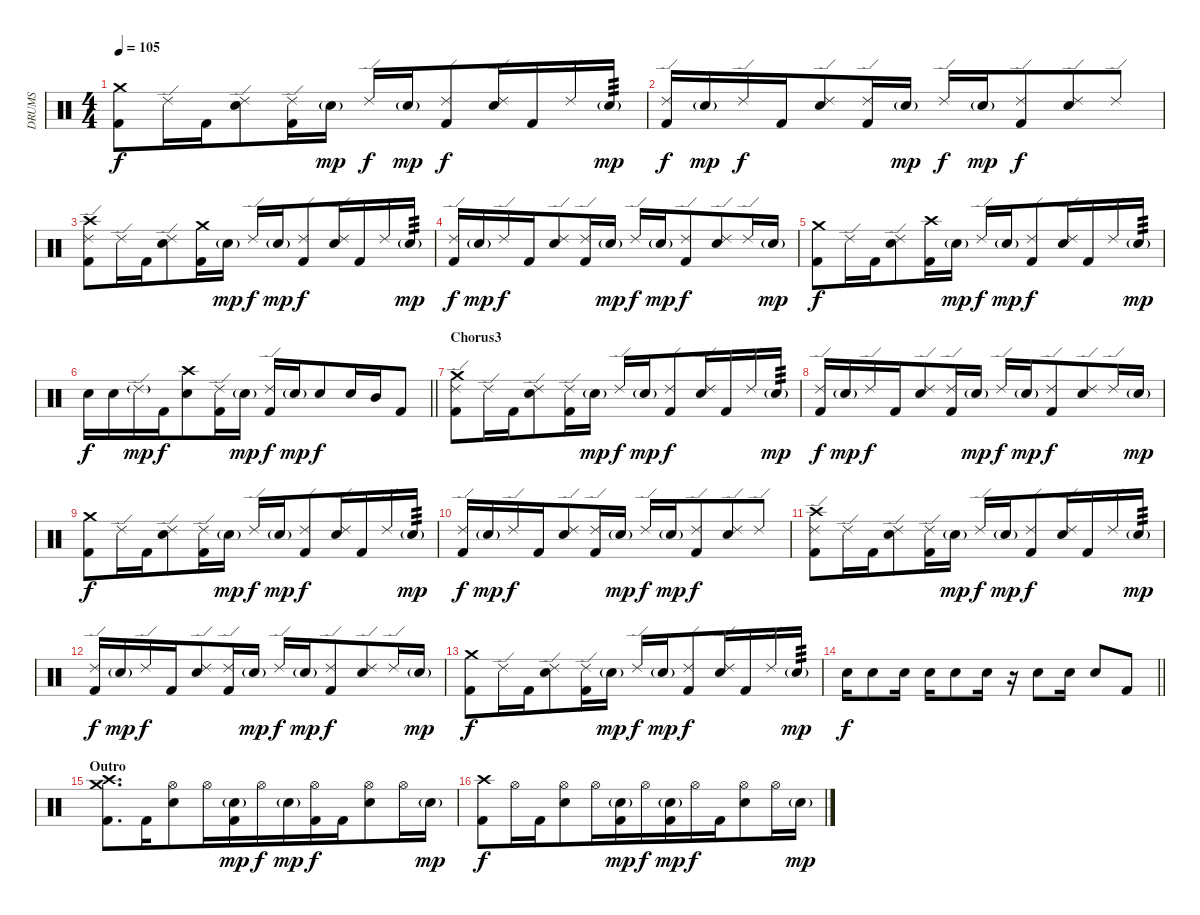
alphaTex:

\track ("DRUMS" "DRUMS") {instrument percussion bank 148}
\staff {score}
\articulation defaults
\ts (4 4)
\tempo 105
\clef neutral
\ks c
("Crash medium (hit)" "Kick (hit) 2").8{dy f beam merge} "Ride (edge) 2".16 "Kick (hit) 2".16{beam merge} ("Ride (edge) 2" "Electric Snare (hit)").8 ("Ride (edge) 2" "Kick (hit) 2").16{beam merge} "Electric Snare (hit)"{g}.16{dy mp} "Ride (edge) 2".16{dy f} "Electric Snare (hit)"{g}.16{dy mp beam merge} ("Ride (edge) 2" "Kick (hit) 2").8{dy f beam merge} ("Ride (edge) 2" "Electric Snare (hit)").16 "Kick (hit) 2".16 "Ride (edge) 2".16 "Electric Snare (hit)"{g}.16{tp 3 dy mp} |
("Ride (edge) 2" "Kick (hit) 2").16{dy f} "Electric Snare (hit)"{g}.16{dy mp} "Ride (edge) 2".16{dy f} "Kick (hit) 2".16{beam merge} ("Ride (edge) 2" "Electric Snare (hit)").8 ("Ride (edge) 2" "Kick (hit) 2").16 "Electric Snare (hit)"{g}.16{dy mp} "Ride (edge) 2".16{dy f beam merge} "Electric Snare (hit)"{g}.16{dy mp beam merge} ("Ride (edge) 2" "Kick (hit) 2").8{dy f beam merge} ("Ride (edge) 2" "Electric Snare (hit)").8 "Ride (edge) 2".8 |
("Ride (edge) 2" "Crash high (hit)" "Kick (hit) 2").8{beam merge} "Ride (edge) 2".16 "Kick (hit) 2".16{beam merge} ("Ride (edge) 2" "Electric Snare (hit)").8 ("Crash medium (hit)" "Kick (hit) 2").16{beam merge} "Electric Snare (hit)"{g}.16{dy mp} "Ride (edge) 2".16{dy f} "Electric Snare (hit)"{g}.16{dy mp beam merge} ("Ride (edge) 2" "Kick (hit) 2").8{dy f beam merge} ("Ride (edge) 2" "Electric Snare (hit)").16 "Kick (hit) 2".16 "Ride (edge) 2".16 "Electric Snare (hit)"{g}.16{tp 3 dy mp} |
("Ride (edge) 2" "Kick (hit) 2").16{dy f} "Electric Snare (hit)"{g}.16{dy mp} "Ride (edge) 2".16{dy f} "Kick (hit) 2".16{beam merge} ("Ride (edge) 2" "Electric Snare (hit)").8 ("Ride (edge) 2" "Kick (hit) 2").16 "Electric Snare (hit)"{g}.16{dy mp} "Ride (edge) 2".16{dy f beam merge} "Electric Snare (hit)"{g}.16{dy mp beam merge} ("Ride (edge) 2" "Kick (hit) 2").8{dy f beam merge} ("Ride (edge) 2" "Electric Snare (hit)").8 "Ride (edge) 2".16 "Electric Snare (hit)"{g}.16{dy mp} |
("Crash medium (hit)" "Kick (hit) 2").8{dy f beam merge} "Ride (edge) 2".16 "Kick (hit) 2".16{beam merge} ("Ride (edge) 2" "Electric Snare (hit)").8 ("Crash high (hit)" "Kick (hit) 2").16{beam merge} "Electric Snare (hit)"{g}.16{dy mp} "Ride (edge) 2".16{dy f} "Electric Snare (hit)"{g}.16{dy mp beam merge} ("Ride (edge) 2" "Kick (hit) 2").8{dy f beam merge} ("Ride (edge) 2" "Electric Snare (hit)").16 "Kick (hit) 2".16 "Ride (edge) 2".16 "Electric Snare (hit)"{g}.16{tp 3 dy mp} |
\barLineRight lightlight "Electric Snare (hit)".16{dy f} "Electric Snare (hit)".16 "Ride (edge) 2"{g}.16{dy mp} "Kick (hit) 2".16{dy f beam merge}
("Crash high (hit)" "Electric Snare (hit)").8 ("Ride (edge) 2" "Kick (hit) 2").16 "Electric Snare (hit)"{g}.16{dy mp} ("Ride (edge) 2" "Kick (hit) 2").16{dy f beam merge} "Electric Snare (hit)"{g}.16{dy mp beam merge} "Electric Snare (hit)".8{dy f beam merge} "Electric Snare (hit)".16 "Mid Tom (hit)".16 "Kick (hit) 2".8 |
\section ("" "Chorus3")
("Ride (edge) 2" "Crash medium (hit)" "Kick (hit) 2").8{beam merge} "Ride (edge) 2".16 "Kick (hit) 2".16{beam merge} ("Ride (edge) 2" "Electric Snare (hit)").8 ("Ride (edge) 2" "Kick (hit) 2").16{beam merge} "Electric Snare (hit)"{g}.16{dy mp} "Ride (edge) 2".16{dy f} "Electric Snare (hit)"{g}.16{dy mp beam merge} ("Ride (edge) 2" "Kick (hit) 2").8{dy f beam merge} ("Ride (edge) 2" "Electric Snare (hit)").16 "Kick (hit) 2".16 "Ride (edge) 2".16 "Electric Snare (hit)"{g}.16{tp 3 dy mp} |
("Ride (edge) 2" "Kick (hit) 2").16{dy f} "Electric Snare (hit)"{g}.16{dy mp} "Ride (edge) 2".16{dy f} "Kick (hit) 2".16{beam merge} ("Ride (edge) 2" "Electric Snare (hit)").8 ("Ride (edge) 2" "Kick (hit) 2").16 "Electric Snare (hit)"{g}.16{dy mp} "Ride (edge) 2".16{dy f beam merge} "Electric Snare (hit)"{g}.16{dy mp beam merge} ("Ride (edge) 2" "Kick (hit) 2").8{dy f beam merge} ("Ride (edge) 2" "Electric Snare (hit)").8 "Ride (edge) 2".16 "Electric Snare (hit)"{g}.16{dy mp} |
("Crash medium (hit)" "Kick (hit) 2").8{dy f beam merge} "Ride (edge) 2".16 "Kick (hit) 2".16{beam merge} ("Ride (edge) 2" "Electric Snare (hit)").8 ("Ride (edge) 2" "Kick (hit) 2").16{beam merge} "Electric Snare (hit)"{g}.16{dy mp} "Ride (edge) 2".16{dy f} "Electric Snare (hit)"{g}.16{dy mp beam merge} ("Ride (edge) 2" "Kick (hit) 2").8{dy f beam merge} ("Ride (edge) 2" "Electric Snare (hit)").16 "Kick (hit) 2".16 "Ride (edge) 2".16 "Electric Snare (hit)"{g}.16{tp 3 dy mp} |
("Ride (edge) 2" "Kick (hit) 2").16{dy f} "Electric Snare (hit)"{g}.16{dy mp} "Ride (edge) 2".16{dy f} "Kick (hit) 2".16{beam merge} ("Ride (edge) 2" "Electric Snare (hit)").8 ("Ride (edge) 2" "Kick (hit) 2").16 "Electric Snare (hit)"{g}.16{dy mp} "Ride (edge) 2".16{dy f beam merge} "Electric Snare (hit)"{g}.16{dy mp beam merge} ("Ride (edge) 2" "Kick (hit) 2").8{dy f beam merge} ("Ride (edge) 2" "Electric Snare (hit)").8 "Ride (edge) 2".8 |
("Ride (edge) 2" "Crash high (hit)" "Kick (hit) 2").8{beam merge} "Ride (edge) 2".16 "Kick (hit) 2".16{beam merge} ("Ride (edge) 2" "Electric Snare (hit)").8 ("Ride (edge) 2" "Kick (hit) 2").16{beam merge} "Electric Snare (hit)"{g}.16{dy mp} "Ride (edge) 2".16{dy f} "Electric Snare (hit)"{g}.16{dy mp beam merge} ("Ride (edge) 2" "Kick (hit) 2").8{dy f beam merge} ("Ride (edge) 2" "Electric Snare (hit)").16 "Kick (hit) 2".16 "Ride (edge) 2".16 "Electric Snare (hit)"{g}.16{tp 3 dy mp} |
("Ride (edge) 2" "Kick (hit) 2").16{dy f} "Electric Snare (hit)"{g}.16{dy mp} "Ride (edge) 2".16{dy f} "Kick (hit) 2".16{beam merge} ("Ride (edge) 2" "Electric Snare (hit)").8 ("Ride (edge) 2" "Kick (hit) 2").16 "Electric Snare (hit)"{g}.16{dy mp} "Ride (edge) 2".16{dy f beam merge} "Electric Snare (hit)"{g}.16{dy mp beam merge} ("Ride (edge) 2" "Kick (hit) 2").8{dy f beam merge} ("Ride (edge) 2" "Electric Snare (hit)").8 "Ride (edge) 2".16 "Electric Snare (hit)"{g}.16{dy mp} |
("Crash medium (hit)" "Kick (hit) 2").8{dy f beam merge} "Ride (edge) 2".16 "Kick (hit) 2".16{beam merge} ("Ride (edge) 2" "Electric Snare (hit)").8 ("Ride (edge) 2" "Kick (hit) 2").16{beam merge} "Electric Snare (hit)"{g}.16{dy mp} "Ride (edge) 2".16{dy f} "Electric Snare (hit)"{g}.16{dy mp beam merge} ("Ride (edge) 2" "Kick (hit) 2").8{dy f beam merge} ("Ride (edge) 2" "Electric Snare (hit)").16 "Kick (hit) 2".16 "Ride (edge) 2".16 "Electric Snare (hit)"{g}.16{tp 3 dy mp} |
\barLineRight lightlight "Electric Snare (hit)".16{dy f} "Electric Snare (hit)".8 "Electric Snare (hit)".16 "Electric Snare (hit)".16 "Electric Snare (hit)".8 "Electric Snare (hit)".16
r.16 "Electric Snare (hit)".8 "Electric Snare (hit)".16 "Electric Snare (hit)".8{beam merge} "Kick (hit) 2".8 |
\section ("" "Outro")
("Crash medium (hit)" "Crash high (hit)" "Kick (hit) 2").8{d} "Kick (hit) 2".16{beam merge} ("Hi-Hat (open)" "Electric Snare (hit)").8{beam merge} "Hi-Hat (open)".16 ("Electric Snare (hit)"{g} "Kick (hit) 2").16{dy mp beam merge} "Hi-Hat (open)".16{dy f} "Electric Snare (hit)"{g}.16{dy mp beam merge} ("Hi-Hat (open)" "Kick (hit) 2").16{dy f} "Kick (hit) 2".16{beam merge} ("Hi-Hat (open)" "Electric Snare (hit)").8{beam merge} "Hi-Hat (open)".16 "Electric Snare (hit)"{g}.16{dy mp} |
("Crash high (hit)" "Kick (hit) 2").8{dy f} "Hi-Hat (open)".16 "Kick (hit) 2".16{beam merge} ("Hi-Hat (open)" "Electric Snare (hit)").8{beam merge} "Hi-Hat (open)".16 ("Electric Snare (hit)"{g} "Kick (hit) 2").16{dy mp beam merge} "Hi-Hat (open)".16{dy f} ("Electric Snare (hit)"{g} "Kick (hit) 2").16{dy mp beam merge} "Hi-Hat (open)".16{dy f} "Kick (hit) 2".16{beam merge} ("Hi-Hat (open)" "Electric Snare (hit)").8{beam merge} "Hi-Hat (open)".16 "Electric Snare (hit)"{g}.16{dy mp}
